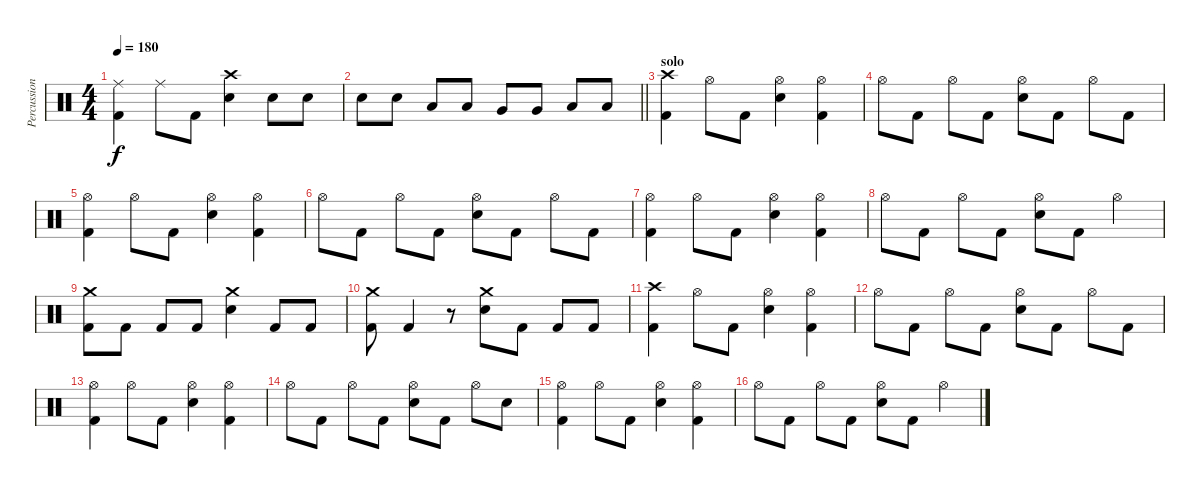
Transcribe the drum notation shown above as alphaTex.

\track ("Percussion" "Percussion") {instrument percussion}
\staff {score}
\articulation defaults
\ts (4 4)
\tempo 180
\clef neutral
\ks c
("Ride (middle)" "Kick (hit) 2").4{dy f} "Ride (middle)".8 "Kick (hit) 2".8 ("Crash high (hit)" "Electric Snare (hit)").4 "Electric Snare (hit)".8 "Electric Snare (hit)".8 |
\barLineRight lightlight "Electric Snare (hit)".8 "Electric Snare (hit)".8 "Low Tom (hit)".8 "Low Tom (hit)".8 "Very Low Tom (hit)".8 "Very Low Tom (hit)".8 "Low Floor Tom (hit)".8 "Low Floor Tom (hit)".8
|
\section ("" "solo")
("Crash high (hit)" "Kick (hit) 2").4 "Hi-Hat (open)".8 "Kick (hit) 2".8 ("Hi-Hat (open)" "Electric Snare (hit)").4 ("Hi-Hat (open)" "Kick (hit) 2").4 |
"Hi-Hat (open)".8 "Kick (hit) 2".8 "Hi-Hat (open)".8 "Kick (hit) 2".8 ("Hi-Hat (open)" "Electric Snare (hit)").8 "Kick (hit) 2".8 "Hi-Hat (open)".8 "Kick (hit) 2".8 |
("Hi-Hat (open)" "Kick (hit) 2").4 "Hi-Hat (open)".8 "Kick (hit) 2".8 ("Hi-Hat (open)" "Electric Snare (hit)").4 ("Hi-Hat (open)" "Kick (hit) 2").4 |
"Hi-Hat (open)".8 "Kick (hit) 2".8 "Hi-Hat (open)".8 "Kick (hit) 2".8 ("Hi-Hat (open)" "Electric Snare (hit)").8 "Kick (hit) 2".8 "Hi-Hat (open)".8 "Kick (hit) 2".8 |
("Hi-Hat (open)" "Kick (hit) 2").4 "Hi-Hat (open)".8 "Kick (hit) 2".8 ("Hi-Hat (open)" "Electric Snare (hit)").4 ("Hi-Hat (open)" "Kick (hit) 2").4 |
"Hi-Hat (open)".8 "Kick (hit) 2".8 "Hi-Hat (open)".8 "Kick (hit) 2".8 ("Hi-Hat (open)" "Electric Snare (hit)").8 "Kick (hit) 2".8 "Hi-Hat (open)".4 |
("Crash medium (hit)" "Kick (hit) 2").8 "Kick (hit) 2".8 "Kick (hit) 2".8 "Kick (hit) 2".8 ("Crash medium (hit)" "Electric Snare (hit)").4 "Kick (hit) 2".8 "Kick (hit) 2".8 |
("Crash medium (hit)" "Kick (hit) 2").8 "Kick (hit) 2".4 r.8 ("Crash medium (hit)" "Electric Snare (hit)").8 "Kick (hit) 2".8 "Kick (hit) 2".8 "Kick (hit) 2".8 |
("Crash high (hit)" "Kick (hit) 2").4 "Hi-Hat (open)".8 "Kick (hit) 2".8 ("Hi-Hat (open)" "Electric Snare (hit)").4 ("Hi-Hat (open)" "Kick (hit) 2").4 |
"Hi-Hat (open)".8 "Kick (hit) 2".8 "Hi-Hat (open)".8 "Kick (hit) 2".8 ("Hi-Hat (open)" "Electric Snare (hit)").8 "Kick (hit) 2".8 "Hi-Hat (open)".8 "Kick (hit) 2".8 |
("Hi-Hat (open)" "Kick (hit) 2").4 "Hi-Hat (open)".8 "Kick (hit) 2".8 ("Hi-Hat (open)" "Electric Snare (hit)").4 ("Hi-Hat (open)" "Kick (hit) 2").4 |
"Hi-Hat (open)".8 "Kick (hit) 2".8 "Hi-Hat (open)".8 "Kick (hit) 2".8 ("Hi-Hat (open)" "Electric Snare (hit)").8 "Kick (hit) 2".8 "Hi-Hat (open)".8 "Electric Snare (hit)".8 |
("Hi-Hat (open)" "Kick (hit) 2").4 "Hi-Hat (open)".8 "Kick (hit) 2".8 ("Hi-Hat (open)" "Electric Snare (hit)").4 ("Hi-Hat (open)" "Kick (hit) 2").4 |
"Hi-Hat (open)".8 "Kick (hit) 2".8 "Hi-Hat (open)".8 "Kick (hit) 2".8 ("Hi-Hat (open)" "Electric Snare (hit)").8 "Kick (hit) 2".8 "Hi-Hat (open)".4
